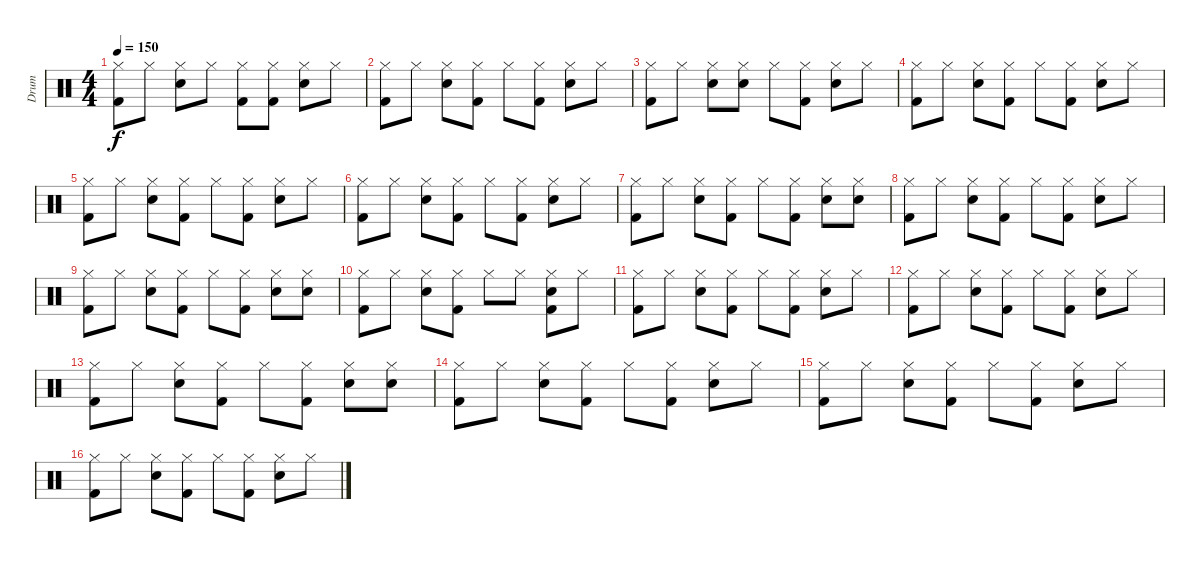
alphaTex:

\track ("Drum" "Drum") {instrument percussion}
\staff {score}
\articulation defaults
\ts (4 4)
\tempo 150
\clef neutral
\ks c
("Hi-Hat (closed)" "Kick (hit) 2").8{dy f} "Hi-Hat (closed)".8 ("Hi-Hat (closed)" "Snare (hit) 2").8 "Hi-Hat (closed)".8 ("Hi-Hat (closed)" "Kick (hit) 2").8 ("Hi-Hat (closed)" "Kick (hit) 2").8 ("Hi-Hat (closed)" "Snare (hit) 2").8 "Hi-Hat (closed)".8 |
("Hi-Hat (closed)" "Kick (hit) 2").8 "Hi-Hat (closed)".8 ("Hi-Hat (closed)" "Snare (hit) 2").8 ("Hi-Hat (closed)" "Kick (hit) 2").8 "Hi-Hat (closed)".8 ("Kick (hit) 2" "Hi-Hat (closed)").8 ("Hi-Hat (closed)" "Snare (hit) 2").8 "Hi-Hat (closed)".8 |
("Hi-Hat (closed)" "Kick (hit) 2").8 "Hi-Hat (closed)".8 ("Snare (hit) 2" "Hi-Hat (closed)").8 ("Snare (hit) 2" "Hi-Hat (closed)").8 "Hi-Hat (closed)".8 ("Hi-Hat (closed)" "Kick (hit) 2").8 ("Hi-Hat (closed)" "Snare (hit) 2").8 "Hi-Hat (closed)".8 |
("Hi-Hat (closed)" "Kick (hit) 2").8 "Hi-Hat (closed)".8 ("Hi-Hat (closed)" "Snare (hit) 2").8 ("Hi-Hat (closed)" "Kick (hit) 2").8 "Hi-Hat (closed)".8 ("Hi-Hat (closed)" "Kick (hit) 2").8 ("Hi-Hat (closed)" "Snare (hit) 2").8 "Hi-Hat (closed)".8 |
("Hi-Hat (closed)" "Kick (hit) 2").8 "Hi-Hat (closed)".8 ("Hi-Hat (closed)" "Snare (hit) 2").8 ("Hi-Hat (closed)" "Kick (hit) 2").8 "Hi-Hat (closed)".8 ("Hi-Hat (closed)" "Kick (hit) 2").8 ("Hi-Hat (closed)" "Snare (hit) 2").8 "Hi-Hat (closed)".8 |
("Hi-Hat (closed)" "Kick (hit) 2").8 "Hi-Hat (closed)".8 ("Hi-Hat (closed)" "Snare (hit) 2").8 ("Hi-Hat (closed)" "Kick (hit) 2").8 "Hi-Hat (closed)".8 ("Hi-Hat (closed)" "Kick (hit) 2").8 ("Snare (hit) 2" "Hi-Hat (closed)").8 "Hi-Hat (closed)".8 |
("Hi-Hat (closed)" "Kick (hit) 2").8 "Hi-Hat (closed)".8 ("Hi-Hat (closed)" "Snare (hit) 2").8 ("Hi-Hat (closed)" "Kick (hit) 2").8 "Hi-Hat (closed)".8 ("Hi-Hat (closed)" "Kick (hit) 2").8 ("Hi-Hat (closed)" "Snare (hit) 2").8 ("Hi-Hat (closed)" "Snare (hit) 2").8 |
("Hi-Hat (closed)" "Kick (hit) 2").8 "Hi-Hat (closed)".8 ("Hi-Hat (closed)" "Snare (hit) 2").8 ("Hi-Hat (closed)" "Kick (hit) 2").8 "Hi-Hat (closed)".8 ("Hi-Hat (closed)" "Kick (hit) 2").8 ("Hi-Hat (closed)" "Snare (hit) 2").8 "Hi-Hat (closed)".8 |
("Hi-Hat (closed)" "Kick (hit) 2").8 "Hi-Hat (closed)".8 ("Snare (hit) 2" "Hi-Hat (closed)").8 ("Kick (hit) 2" "Hi-Hat (closed)").8 "Hi-Hat (closed)".8 ("Kick (hit) 2" "Hi-Hat (closed)").8 ("Hi-Hat (closed)" "Snare (hit) 2").8 ("Hi-Hat (closed)" "Snare (hit) 2").8 |
("Hi-Hat (closed)" "Kick (hit) 2").8 "Hi-Hat (closed)".8 ("Hi-Hat (closed)" "Snare (hit) 2").8 ("Hi-Hat (closed)" "Kick (hit) 2").8 "Hi-Hat (closed)".8 "Hi-Hat (closed)".8 ("Kick (hit) 2" "Hi-Hat (closed)" "Snare (hit) 2").8 "Hi-Hat (closed)".8 |
("Hi-Hat (closed)" "Kick (hit) 2").8 "Hi-Hat (closed)".8 ("Hi-Hat (closed)" "Snare (hit) 2").8 ("Hi-Hat (closed)" "Kick (hit) 2").8 "Hi-Hat (closed)".8 ("Hi-Hat (closed)" "Kick (hit) 2").8 ("Hi-Hat (closed)" "Snare (hit) 2").8 "Hi-Hat (closed)".8 |
("Hi-Hat (closed)" "Kick (hit) 2").8 "Hi-Hat (closed)".8 ("Hi-Hat (closed)" "Snare (hit) 2").8 ("Hi-Hat (closed)" "Kick (hit) 2").8 "Hi-Hat (closed)".8 ("Hi-Hat (closed)" "Kick (hit) 2").8 ("Hi-Hat (closed)" "Snare (hit) 2").8 "Hi-Hat (closed)".8 |
("Hi-Hat (closed)" "Kick (hit) 2").8 "Hi-Hat (closed)".8 ("Snare (hit) 2" "Hi-Hat (closed)").8 ("Kick (hit) 2" "Hi-Hat (closed)").8 "Hi-Hat (closed)".8 ("Kick (hit) 2" "Hi-Hat (closed)").8 ("Snare (hit) 2" "Hi-Hat (closed)").8 ("Snare (hit) 2" "Hi-Hat (closed)").8 |
("Kick (hit) 2" "Hi-Hat (closed)").8 "Hi-Hat (closed)".8 ("Hi-Hat (closed)" "Snare (hit) 2").8 ("Hi-Hat (closed)" "Kick (hit) 2").8 "Hi-Hat (closed)".8 ("Hi-Hat (closed)" "Kick (hit) 2").8 ("Hi-Hat (closed)" "Snare (hit) 2").8 "Hi-Hat (closed)".8 |
("Hi-Hat (closed)" "Kick (hit) 2").8 "Hi-Hat (closed)".8 ("Hi-Hat (closed)" "Snare (hit) 2").8 ("Hi-Hat (closed)" "Kick (hit) 2").8 "Hi-Hat (closed)".8 ("Hi-Hat (closed)" "Kick (hit) 2").8 ("Hi-Hat (closed)" "Snare (hit) 2").8 "Hi-Hat (closed)".8 |
("Hi-Hat (closed)" "Kick (hit) 2").8 "Hi-Hat (closed)".8 ("Hi-Hat (closed)" "Snare (hit) 2").8 ("Hi-Hat (closed)" "Kick (hit) 2").8 "Hi-Hat (closed)".8 ("Kick (hit) 2" "Hi-Hat (closed)").8 ("Snare (hit) 2" "Hi-Hat (closed)").8 "Hi-Hat (closed)".8
